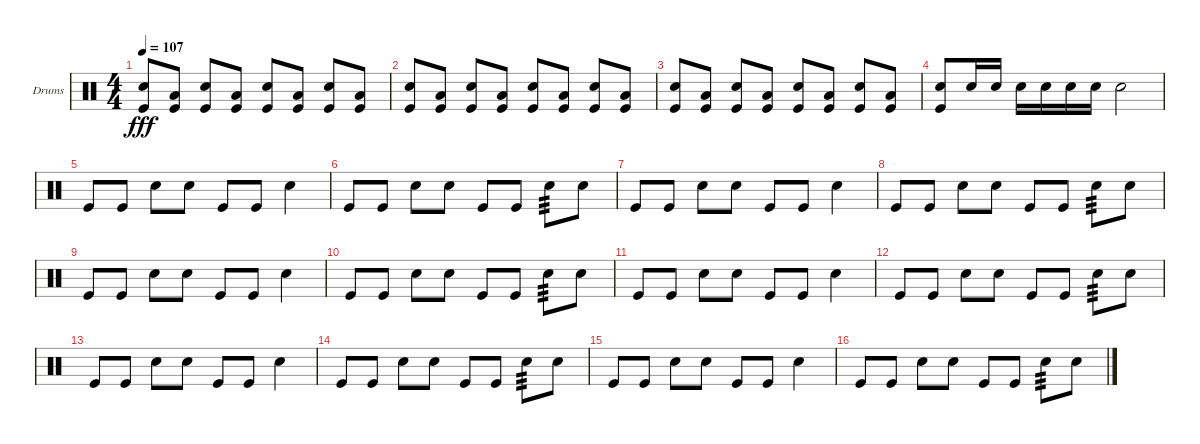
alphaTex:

\defaultSystemsLayout 4
\bracketExtendMode groupsimilarinstruments
\firstSystemTrackNameOrientation horizontal
\otherSystemsTrackNameOrientation horizontal
\track ("Helders" "Drums") {instrument percussion}
\staff {score}
\articulation defaults
\ts (4 4)
\tempo 107
\clef neutral
\ks c
("Snare (hit) 2" "Kick (hit)").8{dy fff} ("Kick (hit)" "Low Tom (hit)").8 ("Snare (hit) 2" "Kick (hit)").8 ("Kick (hit)" "Low Tom (hit)").8 ("Snare (hit) 2" "Kick (hit)").8 ("Kick (hit)" "Low Tom (hit)").8 ("Snare (hit) 2" "Kick (hit)").8 ("Kick (hit)" "Low Tom (hit)").8 |
("Snare (hit) 2" "Kick (hit)").8 ("Kick (hit)" "Low Tom (hit)").8 ("Snare (hit) 2" "Kick (hit)").8 ("Kick (hit)" "Low Tom (hit)").8 ("Snare (hit) 2" "Kick (hit)").8 ("Kick (hit)" "Low Tom (hit)").8 ("Snare (hit) 2" "Kick (hit)").8 ("Kick (hit)" "Low Tom (hit)").8 |
("Snare (hit) 2" "Kick (hit)").8 ("Kick (hit)" "Low Tom (hit)").8 ("Snare (hit) 2" "Kick (hit)").8 ("Kick (hit)" "Low Tom (hit)").8 ("Snare (hit) 2" "Kick (hit)").8 ("Kick (hit)" "Low Tom (hit)").8 ("Snare (hit) 2" "Kick (hit)").8 ("Kick (hit)" "Low Tom (hit)").8 |
("Snare (hit) 2" "Kick (hit)").8 "Snare (hit) 2".16 "Snare (hit) 2".16 "Snare (hit) 2".16 "Snare (hit) 2".16 "Snare (hit) 2".16 "Snare (hit) 2".16 "Snare (hit) 2".2 |
"Kick (hit)".8 "Kick (hit)".8 "Snare (hit) 2".8 "Snare (hit) 2".8 "Kick (hit)".8 "Kick (hit)".8 "Snare (hit) 2".4 |
"Kick (hit)".8 "Kick (hit)".8 "Snare (hit) 2".8 "Snare (hit) 2".8 "Kick (hit)".8 "Kick (hit)".8 "Snare (hit) 2".8{tp 3} "Snare (hit) 2".8 |
"Kick (hit)".8 "Kick (hit)".8 "Snare (hit) 2".8 "Snare (hit) 2".8 "Kick (hit)".8 "Kick (hit)".8 "Snare (hit) 2".4 |
"Kick (hit)".8 "Kick (hit)".8 "Snare (hit) 2".8 "Snare (hit) 2".8 "Kick (hit)".8 "Kick (hit)".8 "Snare (hit) 2".8{tp 3} "Snare (hit) 2".8 |
"Kick (hit)".8 "Kick (hit)".8 "Snare (hit) 2".8 "Snare (hit) 2".8 "Kick (hit)".8 "Kick (hit)".8 "Snare (hit) 2".4 |
"Kick (hit)".8 "Kick (hit)".8 "Snare (hit) 2".8 "Snare (hit) 2".8 "Kick (hit)".8 "Kick (hit)".8 "Snare (hit) 2".8{tp 3} "Snare (hit) 2".8 |
"Kick (hit)".8 "Kick (hit)".8 "Snare (hit) 2".8 "Snare (hit) 2".8 "Kick (hit)".8 "Kick (hit)".8 "Snare (hit) 2".4 |
"Kick (hit)".8 "Kick (hit)".8 "Snare (hit) 2".8 "Snare (hit) 2".8 "Kick (hit)".8 "Kick (hit)".8 "Snare (hit) 2".8{tp 3} "Snare (hit) 2".8 |
"Kick (hit)".8 "Kick (hit)".8 "Snare (hit) 2".8 "Snare (hit) 2".8 "Kick (hit)".8 "Kick (hit)".8 "Snare (hit) 2".4 |
"Kick (hit)".8 "Kick (hit)".8 "Snare (hit) 2".8 "Snare (hit) 2".8 "Kick (hit)".8 "Kick (hit)".8 "Snare (hit) 2".8{tp 3} "Snare (hit) 2".8 |
"Kick (hit)".8 "Kick (hit)".8 "Snare (hit) 2".8 "Snare (hit) 2".8 "Kick (hit)".8 "Kick (hit)".8 "Snare (hit) 2".4 |
"Kick (hit)".8 "Kick (hit)".8 "Snare (hit) 2".8 "Snare (hit) 2".8 "Kick (hit)".8 "Kick (hit)".8 "Snare (hit) 2".8{tp 3} "Snare (hit) 2".8
